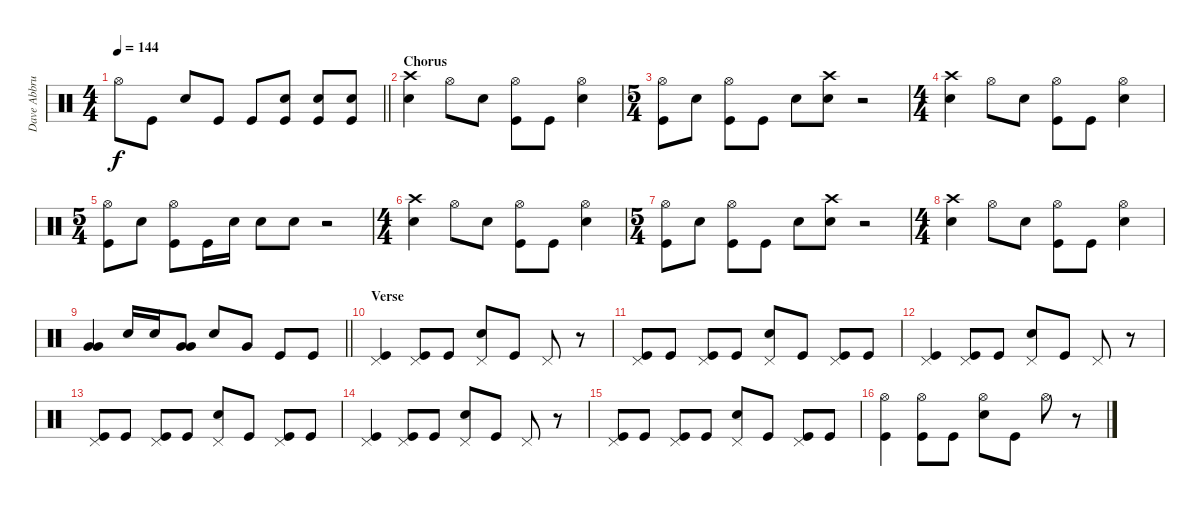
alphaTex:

\track ("Dave Abbruzzese" "Dave Abbru") {instrument percussion}
\staff {score}
\articulation defaults
\ts (4 4)
\tempo 144
\clef neutral
\barLineRight lightlight
\ks c "Hi-Hat (open)".8{dy f} "Kick (hit)".8 "Electric Snare (hit)".8 "Kick (hit)".8 "Kick (hit)".8
("Electric Snare (hit)" "Kick (hit)").8 ("Electric Snare (hit)" "Kick (hit)").8 ("Electric Snare (hit)" "Kick (hit)").8 |
\section ("" "Chorus")
("Crash high (hit)" "Electric Snare (hit)").4 "Hi-Hat (open)".8 "Electric Snare (hit)".8 ("Hi-Hat (open)" "Kick (hit)").8 "Kick (hit)".8 ("Hi-Hat (open)" "Electric Snare (hit)").4 |
\ts (5 4)
("Hi-Hat (open)" "Kick (hit)").8 "Electric Snare (hit)".8 ("Hi-Hat (open)" "Kick (hit)").8 "Kick (hit)".8 "Electric Snare (hit)".8 ("Crash high (hit)" "Electric Snare (hit)").8 r.2 |
\ts (4 4)
("Crash high (hit)" "Electric Snare (hit)").4 "Hi-Hat (open)".8 "Electric Snare (hit)".8 ("Hi-Hat (open)" "Kick (hit)").8 "Kick (hit)".8 ("Hi-Hat (open)" "Electric Snare (hit)").4 |
\ts (5 4)
("Hi-Hat (open)" "Kick (hit)").8 "Electric Snare (hit)".8 ("Hi-Hat (open)" "Kick (hit)").8 "Kick (hit)".16 "Electric Snare (hit)".16 "Electric Snare (hit)".8 "Electric Snare (hit)".8 r.2 |
\ts (4 4)
("Crash high (hit)" "Electric Snare (hit)").4 "Hi-Hat (open)".8 "Electric Snare (hit)".8 ("Hi-Hat (open)" "Kick (hit)").8 "Kick (hit)".8 ("Hi-Hat (open)" "Electric Snare (hit)").4 |
\ts (5 4)
("Hi-Hat (open)" "Kick (hit)").8 "Electric Snare (hit)".8 ("Hi-Hat (open)" "Kick (hit)").8 "Kick (hit)".8 "Electric Snare (hit)".8 ("Crash high (hit)" "Electric Snare (hit)").8 r.2 |
\ts (4 4)
("Crash high (hit)" "Electric Snare (hit)").4 "Hi-Hat (open)".8 "Electric Snare (hit)".8 ("Hi-Hat (open)" "Kick (hit)").8 "Kick (hit)".8 ("Hi-Hat (open)" "Electric Snare (hit)").4 |
\barLineRight lightlight
("Very Low Tom (hit)" "Very Low Tom (hit)").4 "Electric Snare (hit)".16 "Electric Snare (hit)".16 ("Very Low Tom (hit)" "Very Low Tom (hit)").8 "Electric Snare (hit)".8 "Very Low Tom (hit)".8 "Kick (hit)".8 "Kick (hit)".8 |
\section ("" "Verse")
("Pedal Hi-Hat (hit)" "Kick (hit)").4 ("Pedal Hi-Hat (hit)" "Kick (hit)").8 "Kick (hit)".8 ("Pedal Hi-Hat (hit)" "Electric Snare (hit)").8 "Kick (hit)".8 "Pedal Hi-Hat (hit)".8 r.8 |
("Pedal Hi-Hat (hit)" "Kick (hit)").8 "Kick (hit)".8 ("Pedal Hi-Hat (hit)" "Kick (hit)").8 "Kick (hit)".8 ("Pedal Hi-Hat (hit)" "Electric Snare (hit)").8 "Kick (hit)".8 ("Pedal Hi-Hat (hit)" "Kick (hit)").8 "Kick (hit)".8 |
("Pedal Hi-Hat (hit)" "Kick (hit)").4 ("Pedal Hi-Hat (hit)" "Kick (hit)").8 "Kick (hit)".8 ("Pedal Hi-Hat (hit)" "Electric Snare (hit)").8 "Kick (hit)".8 "Pedal Hi-Hat (hit)".8 r.8 |
("Pedal Hi-Hat (hit)" "Kick (hit)").8 "Kick (hit)".8 ("Pedal Hi-Hat (hit)" "Kick (hit)").8 "Kick (hit)".8 ("Pedal Hi-Hat (hit)" "Electric Snare (hit)").8 "Kick (hit)".8 ("Pedal Hi-Hat (hit)" "Kick (hit)").8 "Kick (hit)".8 |
("Pedal Hi-Hat (hit)" "Kick (hit)").4 ("Pedal Hi-Hat (hit)" "Kick (hit)").8 "Kick (hit)".8 ("Pedal Hi-Hat (hit)" "Electric Snare (hit)").8 "Kick (hit)".8 "Pedal Hi-Hat (hit)".8 r.8 |
("Pedal Hi-Hat (hit)" "Kick (hit)").8 "Kick (hit)".8 ("Pedal Hi-Hat (hit)" "Kick (hit)").8 "Kick (hit)".8 ("Pedal Hi-Hat (hit)" "Electric Snare (hit)").8 "Kick (hit)".8 ("Pedal Hi-Hat (hit)" "Kick (hit)").8 "Kick (hit)".8 |
("Hi-Hat (open)" "Kick (hit)").4 ("Hi-Hat (open)" "Kick (hit)").8 "Kick (hit)".8 ("Hi-Hat (open)" "Electric Snare (hit)").8 "Kick (hit)".8 "Hi-Hat (open)".8 r.8
